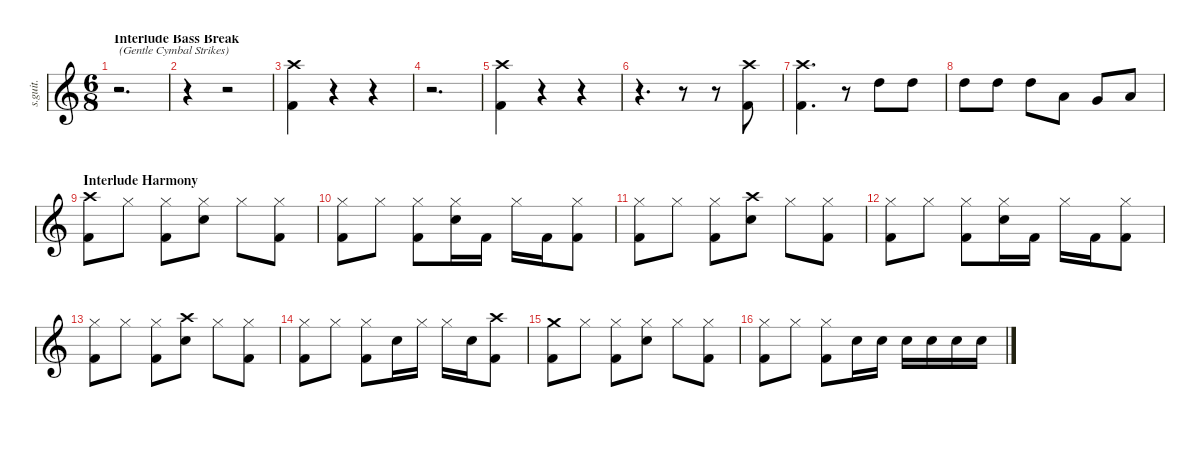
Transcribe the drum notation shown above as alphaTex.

\defaultSystemsLayout 4
\hideDynamics
\bracketExtendMode nobrackets
\track ("Drumkit" "s.guit.") {instrument percussion}
\staff {score}
\articulation defaults
\ts (6 8)
\beaming (8 2 2 2 2)
\section ("" "Interlude Bass Break")
\tempo (78 hide)
\clef g2
\ks c
r.2{d txt "(Gentle Cymbal Strikes)" dy ppp} |
r.4 r.2 |
("Crash high (hit)" "Kick (hit) 2").4{lyrics (0 "") lyrics (1 "") lyrics (2 "") lyrics (3 "") lyrics (4 "") dy p} r.4 r.4 |
r.2{d} |
("Crash high (hit)" "Kick (hit) 2").4{lyrics (0 "") lyrics (1 "") lyrics (2 "") lyrics (3 "") lyrics (4 "")} r.4 r.4 |
r.4{d} r.8 r.8 ("Crash high (hit)" "Kick (hit) 2").8{lyrics (0 "") lyrics (1 "") lyrics (2 "") lyrics (3 "") lyrics (4 "")} |
("Crash high (hit)" "Kick (hit) 2").4{d lyrics (0 "") lyrics (1 "") lyrics (2 "") lyrics (3 "") lyrics (4 "")} r.8 "High Tom (hit)".8{lyrics (0 "") lyrics (1 "") lyrics (2 "") lyrics (3 "") lyrics (4 "")} "High Tom (hit)".8{lyrics (0 "") lyrics (1 "") lyrics (2 "") lyrics (3 "") lyrics (4 "") dy mp} |
"High Tom (hit)".8{lyrics (0 "") lyrics (1 "") lyrics (2 "") lyrics (3 "") lyrics (4 "") dy mf} "High Tom (hit)".8{lyrics (0 "") lyrics (1 "") lyrics (2 "") lyrics (3 "") lyrics (4 "")} "High Tom (hit)".8{lyrics (0 "") lyrics (1 "") lyrics (2 "") lyrics (3 "") lyrics (4 "")} "Low Tom (hit)".8{lyrics (0 "") lyrics (1 "") lyrics (2 "") lyrics (3 "") lyrics (4 "") dy f} "Very Low Tom (hit)".8{lyrics (0 "") lyrics (1 "") lyrics (2 "") lyrics (3 "") lyrics (4 "")} "Low Floor Tom (hit)".8{lyrics (0 "") lyrics (1 "") lyrics (2 "") lyrics (3 "") lyrics (4 "")} |
\section ("" "Interlude Harmony")
("Crash high (hit)" "Kick (hit) 2").8{lyrics (0 "") lyrics (1 "") lyrics (2 "") lyrics (3 "") lyrics (4 "")} "Hi-Hat (closed)".8{lyrics (0 "") lyrics (1 "") lyrics (2 "") lyrics (3 "") lyrics (4 "")} ("Hi-Hat (closed)" "Kick (hit) 2").8{lyrics (0 "") lyrics (1 "") lyrics (2 "") lyrics (3 "") lyrics (4 "")} ("Hi-Hat (closed)" "Snare (hit) 2").8{lyrics (0 "") lyrics (1 "") lyrics (2 "") lyrics (3 "") lyrics (4 "")} "Hi-Hat (closed)".8{lyrics (0 "") lyrics (1 "") lyrics (2 "") lyrics (3 "") lyrics (4 "")} ("Hi-Hat (closed)" "Kick (hit) 2").8{lyrics (0 "") lyrics (1 "") lyrics (2 "") lyrics (3 "") lyrics (4 "")} |
("Hi-Hat (closed)" "Kick (hit) 2").8{lyrics (0 "") lyrics (1 "") lyrics (2 "") lyrics (3 "") lyrics (4 "")} "Hi-Hat (closed)".8{lyrics (0 "") lyrics (1 "") lyrics (2 "") lyrics (3 "") lyrics (4 "")} ("Hi-Hat (closed)" "Kick (hit) 2").8{lyrics (0 "") lyrics (1 "") lyrics (2 "") lyrics (3 "") lyrics (4 "")} ("Hi-Hat (closed)" "Snare (hit) 2").16{lyrics (0 "") lyrics (1 "") lyrics (2 "") lyrics (3 "") lyrics (4 "")} "Kick (hit) 2".16{lyrics (0 "") lyrics (1 "") lyrics (2 "") lyrics (3 "") lyrics (4 "")} "Hi-Hat (closed)".16{lyrics (0 "") lyrics (1 "") lyrics (2 "") lyrics (3 "") lyrics (4 "")} "Kick (hit) 2".16{lyrics (0 "") lyrics (1 "") lyrics (2 "") lyrics (3 "") lyrics (4 "")} ("Hi-Hat (closed)" "Kick (hit) 2").8{lyrics (0 "") lyrics (1 "") lyrics (2 "") lyrics (3 "") lyrics (4 "")} |
("Hi-Hat (closed)" "Kick (hit) 2").8{lyrics (0 "") lyrics (1 "") lyrics (2 "") lyrics (3 "") lyrics (4 "")} "Hi-Hat (closed)".8{lyrics (0 "") lyrics (1 "") lyrics (2 "") lyrics (3 "") lyrics (4 "")} ("Hi-Hat (closed)" "Kick (hit) 2").8{lyrics (0 "") lyrics (1 "") lyrics (2 "") lyrics (3 "") lyrics (4 "")} ("Crash high (hit)" "Snare (hit) 2").8{lyrics (0 "") lyrics (1 "") lyrics (2 "") lyrics (3 "") lyrics (4 "")} "Hi-Hat (closed)".8{lyrics (0 "") lyrics (1 "") lyrics (2 "") lyrics (3 "") lyrics (4 "")} ("Hi-Hat (closed)" "Kick (hit) 2").8{lyrics (0 "") lyrics (1 "") lyrics (2 "") lyrics (3 "") lyrics (4 "")} |
("Hi-Hat (closed)" "Kick (hit) 2").8{lyrics (0 "") lyrics (1 "") lyrics (2 "") lyrics (3 "") lyrics (4 "")} "Hi-Hat (closed)".8{lyrics (0 "") lyrics (1 "") lyrics (2 "") lyrics (3 "") lyrics (4 "")} ("Hi-Hat (closed)" "Kick (hit) 2").8{lyrics (0 "") lyrics (1 "") lyrics (2 "") lyrics (3 "") lyrics (4 "")} ("Hi-Hat (closed)" "Snare (hit) 2").16{lyrics (0 "") lyrics (1 "") lyrics (2 "") lyrics (3 "") lyrics (4 "")} "Kick (hit) 2".16{lyrics (0 "") lyrics (1 "") lyrics (2 "") lyrics (3 "") lyrics (4 "")} "Hi-Hat (closed)".16{lyrics (0 "") lyrics (1 "") lyrics (2 "") lyrics (3 "") lyrics (4 "")} "Kick (hit) 2".16{lyrics (0 "") lyrics (1 "") lyrics (2 "") lyrics (3 "") lyrics (4 "")} ("Hi-Hat (closed)" "Kick (hit) 2").8{lyrics (0 "") lyrics (1 "") lyrics (2 "") lyrics (3 "") lyrics (4 "")} |
("Hi-Hat (closed)" "Kick (hit) 2").8{lyrics (0 "") lyrics (1 "") lyrics (2 "") lyrics (3 "") lyrics (4 "")} "Hi-Hat (closed)".8{lyrics (0 "") lyrics (1 "") lyrics (2 "") lyrics (3 "") lyrics (4 "")} ("Hi-Hat (closed)" "Kick (hit) 2").8{lyrics (0 "") lyrics (1 "") lyrics (2 "") lyrics (3 "") lyrics (4 "")} ("Crash high (hit)" "Snare (hit) 2").8{lyrics (0 "") lyrics (1 "") lyrics (2 "") lyrics (3 "") lyrics (4 "")} "Hi-Hat (closed)".8{lyrics (0 "") lyrics (1 "") lyrics (2 "") lyrics (3 "") lyrics (4 "")} ("Hi-Hat (closed)" "Kick (hit) 2").8{lyrics (0 "") lyrics (1 "") lyrics (2 "") lyrics (3 "") lyrics (4 "")} |
("Hi-Hat (closed)" "Kick (hit) 2").8{lyrics (0 "") lyrics (1 "") lyrics (2 "") lyrics (3 "") lyrics (4 "")} "Hi-Hat (closed)".8{lyrics (0 "") lyrics (1 "") lyrics (2 "") lyrics (3 "") lyrics (4 "")} ("Hi-Hat (closed)" "Kick (hit) 2").8{lyrics (0 "") lyrics (1 "") lyrics (2 "") lyrics (3 "") lyrics (4 "")} "Snare (hit) 2".16{lyrics (0 "") lyrics (1 "") lyrics (2 "") lyrics (3 "") lyrics (4 "")} "Hi-Hat (closed)".16{lyrics (0 "") lyrics (1 "") lyrics (2 "") lyrics (3 "") lyrics (4 "")} "Hi-Hat (closed)".16{lyrics (0 "") lyrics (1 "") lyrics (2 "") lyrics (3 "") lyrics (4 "")} "Snare (hit) 2".16{lyrics (0 "") lyrics (1 "") lyrics (2 "") lyrics (3 "") lyrics (4 "")} ("Crash high (hit)" "Kick (hit) 2").8{lyrics (0 "") lyrics (1 "") lyrics (2 "") lyrics (3 "") lyrics (4 "")} |
("Crash medium (hit)" "Kick (hit) 2").8{lyrics (0 "") lyrics (1 "") lyrics (2 "") lyrics (3 "") lyrics (4 "")} "Hi-Hat (closed)".8{lyrics (0 "") lyrics (1 "") lyrics (2 "") lyrics (3 "") lyrics (4 "")} ("Hi-Hat (closed)" "Kick (hit) 2").8{lyrics (0 "") lyrics (1 "") lyrics (2 "") lyrics (3 "") lyrics (4 "")} ("Hi-Hat (closed)" "Snare (hit) 2").8{lyrics (0 "") lyrics (1 "") lyrics (2 "") lyrics (3 "") lyrics (4 "")} "Hi-Hat (closed)".8{lyrics (0 "") lyrics (1 "") lyrics (2 "") lyrics (3 "") lyrics (4 "")} ("Hi-Hat (closed)" "Kick (hit) 2").8{lyrics (0 "") lyrics (1 "") lyrics (2 "") lyrics (3 "") lyrics (4 "")} |
("Hi-Hat (closed)" "Kick (hit) 2").8{lyrics (0 "") lyrics (1 "") lyrics (2 "") lyrics (3 "") lyrics (4 "")} "Hi-Hat (closed)".8{lyrics (0 "") lyrics (1 "") lyrics (2 "") lyrics (3 "") lyrics (4 "")} ("Hi-Hat (closed)" "Kick (hit) 2").8{lyrics (0 "") lyrics (1 "") lyrics (2 "") lyrics (3 "") lyrics (4 "")} "Snare (hit) 2".16{lyrics (0 "") lyrics (1 "") lyrics (2 "") lyrics (3 "") lyrics (4 "") dy mp} "Snare (hit) 2".16{lyrics (0 "") lyrics (1 "") lyrics (2 "") lyrics (3 "") lyrics (4 "")} "Snare (hit) 2".16{lyrics (0 "") lyrics (1 "") lyrics (2 "") lyrics (3 "") lyrics (4 "") dy mf} "Snare (hit) 2".16{lyrics (0 "") lyrics (1 "") lyrics (2 "") lyrics (3 "") lyrics (4 "")} "Snare (hit) 2".16{lyrics (0 "") lyrics (1 "") lyrics (2 "") lyrics (3 "") lyrics (4 "") dy f} "Snare (hit) 2".16{lyrics (0 "") lyrics (1 "") lyrics (2 "") lyrics (3 "") lyrics (4 "")}
